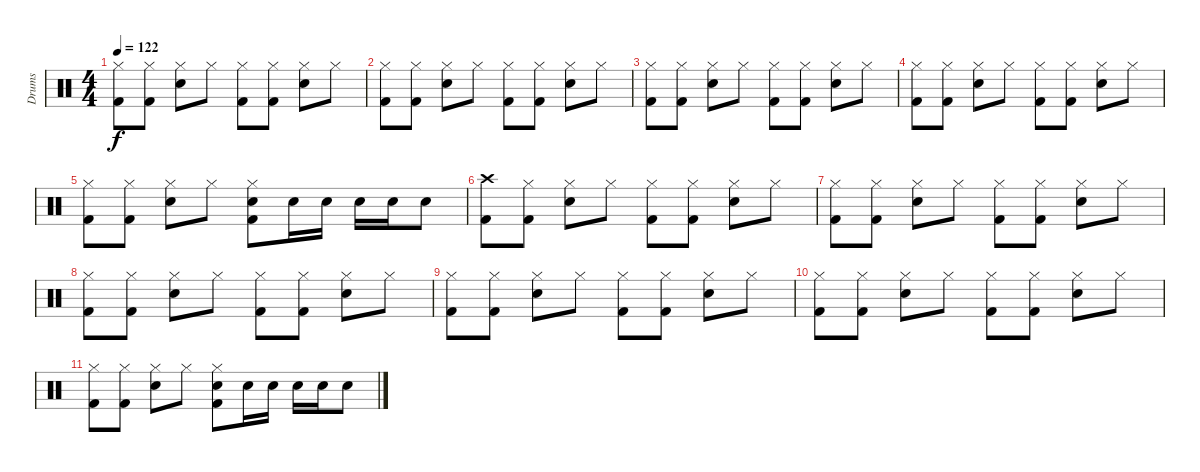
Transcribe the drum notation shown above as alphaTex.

\track ("Drums" "Drums") {instrument percussion}
\staff {score}
\articulation defaults
\ts (4 4)
\tempo 122
\clef neutral
\ks c
("Hi-Hat (closed)" "Kick (hit) 2").8{dy f} ("Hi-Hat (closed)" "Kick (hit) 2").8 ("Hi-Hat (closed)" "Snare (hit) 2").8 "Hi-Hat (closed)".8 ("Hi-Hat (closed)" "Kick (hit) 2").8 ("Hi-Hat (closed)" "Kick (hit) 2").8 ("Hi-Hat (closed)" "Snare (hit) 2").8 "Hi-Hat (closed)".8 |
("Hi-Hat (closed)" "Kick (hit) 2").8 ("Hi-Hat (closed)" "Kick (hit) 2").8 ("Hi-Hat (closed)" "Snare (hit) 2").8 "Hi-Hat (closed)".8 ("Hi-Hat (closed)" "Kick (hit) 2").8 ("Hi-Hat (closed)" "Kick (hit) 2").8 ("Hi-Hat (closed)" "Snare (hit) 2").8 "Hi-Hat (closed)".8 |
("Hi-Hat (closed)" "Kick (hit) 2").8 ("Hi-Hat (closed)" "Kick (hit) 2").8 ("Hi-Hat (closed)" "Snare (hit) 2").8 "Hi-Hat (closed)".8 ("Hi-Hat (closed)" "Kick (hit) 2").8 ("Hi-Hat (closed)" "Kick (hit) 2").8 ("Hi-Hat (closed)" "Snare (hit) 2").8 "Hi-Hat (closed)".8 |
("Hi-Hat (closed)" "Kick (hit) 2").8 ("Hi-Hat (closed)" "Kick (hit) 2").8 ("Hi-Hat (closed)" "Snare (hit) 2").8 "Hi-Hat (closed)".8 ("Hi-Hat (closed)" "Kick (hit) 2").8 ("Hi-Hat (closed)" "Kick (hit) 2").8 ("Hi-Hat (closed)" "Snare (hit) 2").8 "Hi-Hat (closed)".8 |
("Hi-Hat (closed)" "Kick (hit) 2").8 ("Hi-Hat (closed)" "Kick (hit) 2").8 ("Hi-Hat (closed)" "Snare (hit) 2").8 "Hi-Hat (closed)".8 ("Hi-Hat (closed)" "Snare (hit) 2" "Kick (hit) 2").8 "Snare (hit) 2".16 "Snare (hit) 2".16 "Snare (hit) 2".16 "Snare (hit) 2".16 "Snare (hit) 2".8 |
("Crash high (hit)" "Kick (hit) 2").8 ("Hi-Hat (closed)" "Kick (hit) 2").8 ("Hi-Hat (closed)" "Snare (hit) 2").8 "Hi-Hat (closed)".8 ("Hi-Hat (closed)" "Kick (hit) 2").8 ("Hi-Hat (closed)" "Kick (hit) 2").8 ("Hi-Hat (closed)" "Snare (hit) 2").8 "Hi-Hat (closed)".8 |
("Hi-Hat (closed)" "Kick (hit) 2").8 ("Hi-Hat (closed)" "Kick (hit) 2").8 ("Hi-Hat (closed)" "Snare (hit) 2").8 "Hi-Hat (closed)".8 ("Hi-Hat (closed)" "Kick (hit) 2").8 ("Hi-Hat (closed)" "Kick (hit) 2").8 ("Hi-Hat (closed)" "Snare (hit) 2").8 "Hi-Hat (closed)".8 |
("Hi-Hat (closed)" "Kick (hit) 2").8 ("Hi-Hat (closed)" "Kick (hit) 2").8 ("Hi-Hat (closed)" "Snare (hit) 2").8 "Hi-Hat (closed)".8 ("Hi-Hat (closed)" "Kick (hit) 2").8 ("Hi-Hat (closed)" "Kick (hit) 2").8 ("Hi-Hat (closed)" "Snare (hit) 2").8 "Hi-Hat (closed)".8 |
("Hi-Hat (closed)" "Kick (hit) 2").8 ("Hi-Hat (closed)" "Kick (hit) 2").8 ("Hi-Hat (closed)" "Snare (hit) 2").8 "Hi-Hat (closed)".8 ("Hi-Hat (closed)" "Kick (hit) 2").8 ("Hi-Hat (closed)" "Kick (hit) 2").8 ("Hi-Hat (closed)" "Snare (hit) 2").8 "Hi-Hat (closed)".8 |
("Hi-Hat (closed)" "Kick (hit) 2").8 ("Hi-Hat (closed)" "Kick (hit) 2").8 ("Hi-Hat (closed)" "Snare (hit) 2").8 "Hi-Hat (closed)".8 ("Hi-Hat (closed)" "Kick (hit) 2").8 ("Hi-Hat (closed)" "Kick (hit) 2").8 ("Hi-Hat (closed)" "Snare (hit) 2").8 "Hi-Hat (closed)".8 |
("Hi-Hat (closed)" "Kick (hit) 2").8 ("Hi-Hat (closed)" "Kick (hit) 2").8 ("Hi-Hat (closed)" "Snare (hit) 2").8 "Hi-Hat (closed)".8 ("Hi-Hat (closed)" "Snare (hit) 2" "Kick (hit) 2").8 "Snare (hit) 2".16 "Snare (hit) 2".16 "Snare (hit) 2".16 "Snare (hit) 2".16 "Snare (hit) 2".8
